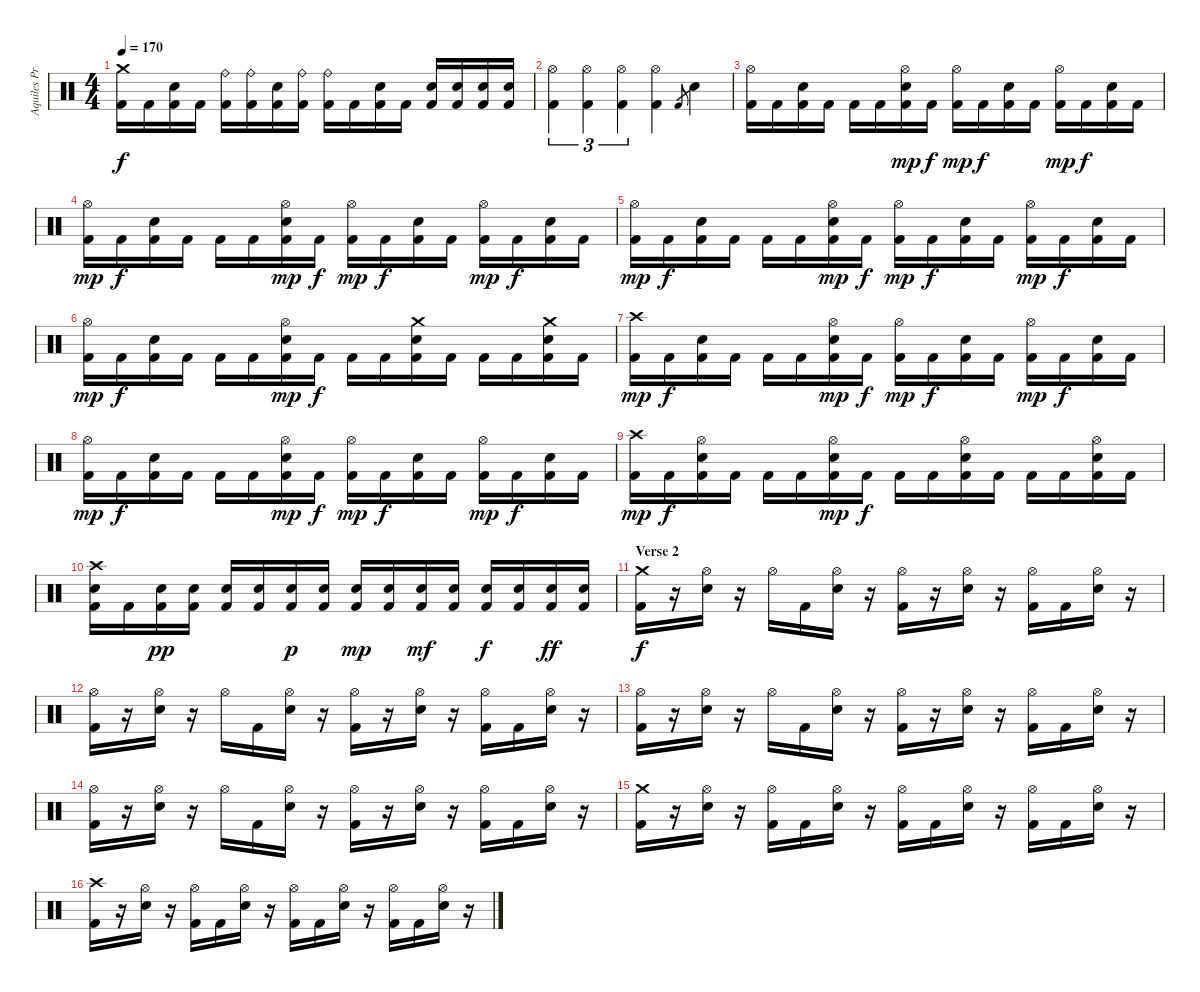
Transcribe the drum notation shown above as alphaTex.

\track ("Aquiles Priester" "Aquiles Pr") {instrument percussion}
\staff {score}
\articulation defaults
\ts (4 4)
\tempo 170
\clef neutral
\ks c
("Crash medium (hit)" "Kick (hit) 2").16{dy f} "Kick (hit) 2".16 ("Electric Snare (hit)" "Kick (hit) 2").16 "Kick (hit) 2".16 ("Ride (bell)" "Kick (hit) 2").16 ("Ride (bell)" "Kick (hit) 2").16 ("Electric Snare (hit)" "Kick (hit) 2").16 ("Ride (bell)" "Kick (hit) 2").16 ("Ride (bell)" "Kick (hit) 2").16 "Kick (hit) 2".16 ("Electric Snare (hit)" "Kick (hit) 2").16 "Kick (hit) 2".16 ("Electric Snare (hit)" "Kick (hit) 2").16 ("Electric Snare (hit)" "Kick (hit) 2").16 ("Electric Snare (hit)" "Kick (hit) 2").16 ("Electric Snare (hit)" "Kick (hit) 2").16 |
("Hi-Hat (open)" "Kick (hit) 2").4{tu (3 2)} ("Hi-Hat (open)" "Kick (hit) 2").4{tu (3 2)} ("Hi-Hat (open)" "Kick (hit) 2").4{tu (3 2)} ("Hi-Hat (open)" "Kick (hit) 2").4 "Kick (hit) 2".8{gr} "Electric Snare (hit)".4 |
("Hi-Hat (open)" "Kick (hit) 2").16 "Kick (hit) 2".16 ("Electric Snare (hit)" "Kick (hit) 2").16 "Kick (hit) 2".16 "Kick (hit) 2".16 "Kick (hit) 2".16 ("Hi-Hat (open)" "Electric Snare (hit)" "Kick (hit) 2").16{dy mp} "Kick (hit) 2".16{dy f} ("Hi-Hat (open)" "Kick (hit) 2").16{dy mp} "Kick (hit) 2".16{dy f} ("Electric Snare (hit)" "Kick (hit) 2").16 "Kick (hit) 2".16 ("Hi-Hat (open)" "Kick (hit) 2").16{dy mp} "Kick (hit) 2".16{dy f} ("Electric Snare (hit)" "Kick (hit) 2").16 "Kick (hit) 2".16 |
("Hi-Hat (open)" "Kick (hit) 2").16{dy mp} "Kick (hit) 2".16{dy f} ("Electric Snare (hit)" "Kick (hit) 2").16 "Kick (hit) 2".16 "Kick (hit) 2".16 "Kick (hit) 2".16 ("Hi-Hat (open)" "Electric Snare (hit)" "Kick (hit) 2").16{dy mp} "Kick (hit) 2".16{dy f} ("Hi-Hat (open)" "Kick (hit) 2").16{dy mp} "Kick (hit) 2".16{dy f} ("Electric Snare (hit)" "Kick (hit) 2").16 "Kick (hit) 2".16 ("Hi-Hat (open)" "Kick (hit) 2").16{dy mp} "Kick (hit) 2".16{dy f} ("Electric Snare (hit)" "Kick (hit) 2").16 "Kick (hit) 2".16 |
("Hi-Hat (open)" "Kick (hit) 2").16{dy mp} "Kick (hit) 2".16{dy f} ("Electric Snare (hit)" "Kick (hit) 2").16 "Kick (hit) 2".16 "Kick (hit) 2".16 "Kick (hit) 2".16 ("Hi-Hat (open)" "Electric Snare (hit)" "Kick (hit) 2").16{dy mp} "Kick (hit) 2".16{dy f} ("Hi-Hat (open)" "Kick (hit) 2").16{dy mp} "Kick (hit) 2".16{dy f} ("Electric Snare (hit)" "Kick (hit) 2").16 "Kick (hit) 2".16 ("Hi-Hat (open)" "Kick (hit) 2").16{dy mp} "Kick (hit) 2".16{dy f} ("Electric Snare (hit)" "Kick (hit) 2").16 "Kick (hit) 2".16 |
("Hi-Hat (open)" "Kick (hit) 2").16{dy mp} "Kick (hit) 2".16{dy f} ("Electric Snare (hit)" "Kick (hit) 2").16 "Kick (hit) 2".16 "Kick (hit) 2".16 "Kick (hit) 2".16 ("Hi-Hat (open)" "Electric Snare (hit)" "Kick (hit) 2").16{dy mp} "Kick (hit) 2".16{dy f} "Kick (hit) 2".16 "Kick (hit) 2".16 ("Crash medium (hit)" "Electric Snare (hit)" "Kick (hit) 2").16 "Kick (hit) 2".16 "Kick (hit) 2".16 "Kick (hit) 2".16 ("Crash medium (hit)" "Electric Snare (hit)" "Kick (hit) 2").16 "Kick (hit) 2".16 |
("Crash high (hit)" "Kick (hit) 2").16{dy mp} "Kick (hit) 2".16{dy f} ("Electric Snare (hit)" "Kick (hit) 2").16 "Kick (hit) 2".16 "Kick (hit) 2".16 "Kick (hit) 2".16 ("Hi-Hat (open)" "Electric Snare (hit)" "Kick (hit) 2").16{dy mp} "Kick (hit) 2".16{dy f} ("Hi-Hat (open)" "Kick (hit) 2").16{dy mp} "Kick (hit) 2".16{dy f} ("Electric Snare (hit)" "Kick (hit) 2").16 "Kick (hit) 2".16 ("Hi-Hat (open)" "Kick (hit) 2").16{dy mp} "Kick (hit) 2".16{dy f} ("Electric Snare (hit)" "Kick (hit) 2").16 "Kick (hit) 2".16 |
("Hi-Hat (open)" "Kick (hit) 2").16{dy mp} "Kick (hit) 2".16{dy f} ("Electric Snare (hit)" "Kick (hit) 2").16 "Kick (hit) 2".16 "Kick (hit) 2".16 "Kick (hit) 2".16 ("Hi-Hat (open)" "Electric Snare (hit)" "Kick (hit) 2").16{dy mp} "Kick (hit) 2".16{dy f} ("Hi-Hat (open)" "Kick (hit) 2").16{dy mp} "Kick (hit) 2".16{dy f} ("Electric Snare (hit)" "Kick (hit) 2").16 "Kick (hit) 2".16 ("Hi-Hat (open)" "Kick (hit) 2").16{dy mp} "Kick (hit) 2".16{dy f} ("Electric Snare (hit)" "Kick (hit) 2").16 "Kick (hit) 2".16 |
("Crash high (hit)" "Kick (hit) 2").16{dy mp} "Kick (hit) 2".16{dy f} ("Hi-Hat (open)" "Electric Snare (hit)" "Kick (hit) 2").16 "Kick (hit) 2".16 "Kick (hit) 2".16 "Kick (hit) 2".16 ("Hi-Hat (open)" "Electric Snare (hit)" "Kick (hit) 2").16{dy mp} "Kick (hit) 2".16{dy f} "Kick (hit) 2".16 "Kick (hit) 2".16 ("Hi-Hat (open)" "Electric Snare (hit)" "Kick (hit) 2").16 "Kick (hit) 2".16 "Kick (hit) 2".16 "Kick (hit) 2".16 ("Hi-Hat (open)" "Electric Snare (hit)" "Kick (hit) 2").16 "Kick (hit) 2".16 |
("Crash high (hit)" "Electric Snare (hit)" "Kick (hit) 2").16 "Kick (hit) 2".16 ("Electric Snare (hit)" "Kick (hit) 2").16{dy pp} ("Electric Snare (hit)" "Kick (hit) 2").16 ("Electric Snare (hit)" "Kick (hit) 2").16 ("Electric Snare (hit)" "Kick (hit) 2").16 ("Electric Snare (hit)" "Kick (hit) 2").16{dy p} ("Electric Snare (hit)" "Kick (hit) 2").16 ("Electric Snare (hit)" "Kick (hit) 2").16{dy mp} ("Electric Snare (hit)" "Kick (hit) 2").16 ("Electric Snare (hit)" "Kick (hit) 2").16{dy mf} ("Electric Snare (hit)" "Kick (hit) 2").16 ("Electric Snare (hit)" "Kick (hit) 2").16{dy f} ("Electric Snare (hit)" "Kick (hit) 2").16 ("Electric Snare (hit)" "Kick (hit) 2").16{dy ff} ("Electric Snare (hit)" "Kick (hit) 2").16 |
\section ("" "Verse 2")
("Kick (hit) 2" "Crash medium (hit)").16{dy f} r.16 ("Electric Snare (hit)" "Hi-Hat (open)").16 r.16 "Hi-Hat (open)".16 "Kick (hit) 2".16 ("Electric Snare (hit)" "Hi-Hat (open)").16 r.16 ("Kick (hit) 2" "Hi-Hat (open)").16 r.16 ("Electric Snare (hit)" "Hi-Hat (open)").16 r.16 ("Kick (hit) 2" "Hi-Hat (open)").16 "Kick (hit) 2".16 ("Electric Snare (hit)" "Hi-Hat (open)").16 r.16 |
("Kick (hit) 2" "Hi-Hat (open)").16 r.16 ("Electric Snare (hit)" "Hi-Hat (open)").16 r.16 "Hi-Hat (open)".16 "Kick (hit) 2".16 ("Electric Snare (hit)" "Hi-Hat (open)").16 r.16 ("Kick (hit) 2" "Hi-Hat (open)").16 r.16 ("Electric Snare (hit)" "Hi-Hat (open)").16 r.16 ("Kick (hit) 2" "Hi-Hat (open)").16 "Kick (hit) 2".16 ("Electric Snare (hit)" "Hi-Hat (open)").16 r.16 |
("Kick (hit) 2" "Hi-Hat (open)").16 r.16 ("Electric Snare (hit)" "Hi-Hat (open)").16 r.16 "Hi-Hat (open)".16 "Kick (hit) 2".16 ("Electric Snare (hit)" "Hi-Hat (open)").16 r.16 ("Kick (hit) 2" "Hi-Hat (open)").16 r.16 ("Electric Snare (hit)" "Hi-Hat (open)").16 r.16 ("Kick (hit) 2" "Hi-Hat (open)").16 "Kick (hit) 2".16 ("Electric Snare (hit)" "Hi-Hat (open)").16 r.16 |
("Kick (hit) 2" "Hi-Hat (open)").16 r.16 ("Electric Snare (hit)" "Hi-Hat (open)").16 r.16 "Hi-Hat (open)".16 "Kick (hit) 2".16 ("Electric Snare (hit)" "Hi-Hat (open)").16 r.16 ("Kick (hit) 2" "Hi-Hat (open)").16 r.16 ("Electric Snare (hit)" "Hi-Hat (open)").16 r.16 ("Kick (hit) 2" "Hi-Hat (open)").16 "Kick (hit) 2".16 ("Electric Snare (hit)" "Hi-Hat (open)").16 r.16 |
("Kick (hit) 2" "Crash medium (hit)").16 r.16 ("Electric Snare (hit)" "Hi-Hat (open)").16 r.16 ("Kick (hit) 2" "Hi-Hat (open)").16 "Kick (hit) 2".16 ("Electric Snare (hit)" "Hi-Hat (open)").16 r.16 ("Kick (hit) 2" "Hi-Hat (open)").16 "Kick (hit) 2".16 ("Electric Snare (hit)" "Hi-Hat (open)").16 r.16 ("Kick (hit) 2" "Hi-Hat (open)").16 "Kick (hit) 2".16 ("Electric Snare (hit)" "Hi-Hat (open)").16 r.16 |
("Kick (hit) 2" "Crash high (hit)").16 r.16 ("Electric Snare (hit)" "Hi-Hat (open)").16 r.16 ("Kick (hit) 2" "Hi-Hat (open)").16 "Kick (hit) 2".16 ("Electric Snare (hit)" "Hi-Hat (open)").16 r.16 ("Kick (hit) 2" "Hi-Hat (open)").16 "Kick (hit) 2".16 ("Electric Snare (hit)" "Hi-Hat (open)").16 r.16 ("Kick (hit) 2" "Hi-Hat (open)").16 "Kick (hit) 2".16 ("Electric Snare (hit)" "Hi-Hat (open)").16 r.16
